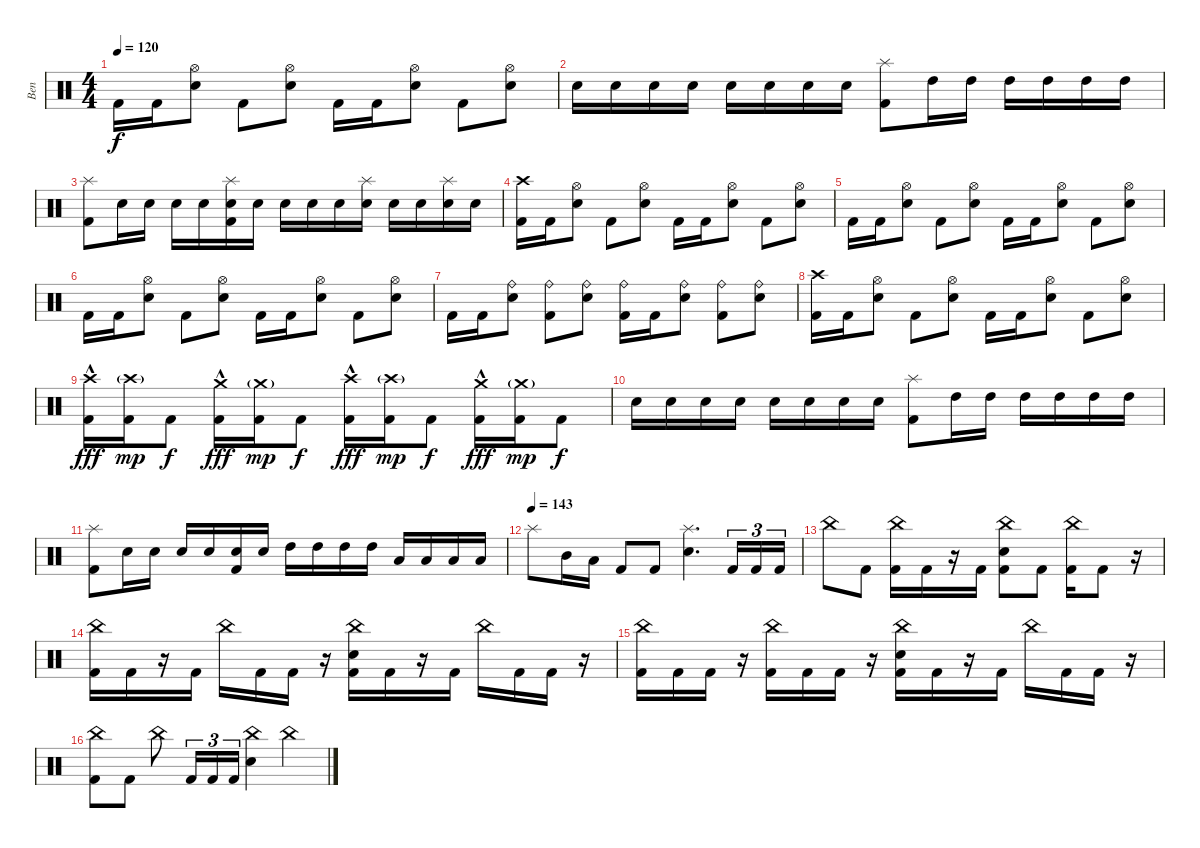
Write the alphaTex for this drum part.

\track ("Ben" "Ben") {instrument percussion}
\staff {score}
\articulation defaults
\ts (4 4)
\tempo 120
\clef neutral
\ks c "Kick (hit) 2".16{dy f} "Kick (hit) 2".16
("Hi-Hat (open)" "Electric Snare (hit)").8 "Kick (hit) 2".8 ("Hi-Hat (open)" "Electric Snare (hit)").8 "Kick (hit) 2".16 "Kick (hit) 2".16 ("Hi-Hat (open)" "Electric Snare (hit)").8 "Kick (hit) 2".8 ("Hi-Hat (open)" "Electric Snare (hit)").8 |
"Electric Snare (hit)".16 "Electric Snare (hit)".16 "Electric Snare (hit)".16 "Electric Snare (hit)".16 "Electric Snare (hit)".16 "Electric Snare (hit)".16 "Electric Snare (hit)".16 "Electric Snare (hit)".16 ("Splash (hit)" "Kick (hit) 2").8 "High Tom (hit)".16 "High Tom (hit)".16 "High Tom (hit)".16 "High Tom (hit)".16 "High Tom (hit)".16 "High Tom (hit)".16 |
("Splash (hit)" "Kick (hit) 2").8 "Electric Snare (hit)".16 "Electric Snare (hit)".16 "Electric Snare (hit)".16 "Electric Snare (hit)".16 ("Splash (hit)" "Electric Snare (hit)" "Kick (hit) 2").16 "Electric Snare (hit)".16 "Electric Snare (hit)".16 "Electric Snare (hit)".16 "Electric Snare (hit)".16 ("Splash (hit)" "Electric Snare (hit)").16 "Electric Snare (hit)".16 "Electric Snare (hit)".16 ("Splash (hit)" "Electric Snare (hit)").16 "Electric Snare (hit)".16 |
("Crash high (hit)" "Kick (hit) 2").16 "Kick (hit) 2".16 ("Hi-Hat (open)" "Electric Snare (hit)").8 "Kick (hit) 2".8 ("Hi-Hat (open)" "Electric Snare (hit)").8 "Kick (hit) 2".16 "Kick (hit) 2".16 ("Hi-Hat (open)" "Electric Snare (hit)").8 "Kick (hit) 2".8 ("Hi-Hat (open)" "Electric Snare (hit)").8 |
"Kick (hit) 2".16 "Kick (hit) 2".16 ("Hi-Hat (open)" "Electric Snare (hit)").8 "Kick (hit) 2".8 ("Hi-Hat (open)" "Electric Snare (hit)").8 "Kick (hit) 2".16 "Kick (hit) 2".16 ("Hi-Hat (open)" "Electric Snare (hit)").8 "Kick (hit) 2".8 ("Hi-Hat (open)" "Electric Snare (hit)").8 |
"Kick (hit) 2".16 "Kick (hit) 2".16 ("Hi-Hat (open)" "Electric Snare (hit)").8 "Kick (hit) 2".8 ("Hi-Hat (open)" "Electric Snare (hit)").8 "Kick (hit) 2".16 "Kick (hit) 2".16 ("Hi-Hat (open)" "Electric Snare (hit)").8 "Kick (hit) 2".8 ("Hi-Hat (open)" "Electric Snare (hit)").8 |
"Kick (hit) 2".16 "Kick (hit) 2".16 ("Ride (bell)" "Electric Snare (hit)").8 ("Ride (bell)" "Kick (hit) 2").8 ("Ride (bell)" "Electric Snare (hit)").8 ("Ride (bell)" "Kick (hit) 2").16 "Kick (hit) 2".16 ("Ride (bell)" "Electric Snare (hit)").8 ("Ride (bell)" "Kick (hit) 2").8 ("Ride (bell)" "Electric Snare (hit)").8 |
("Crash high (hit)" "Kick (hit) 2").16 "Kick (hit) 2".16 ("Hi-Hat (open)" "Electric Snare (hit)").8 "Kick (hit) 2".8 ("Hi-Hat (open)" "Electric Snare (hit)").8 "Kick (hit) 2".16 "Kick (hit) 2".16 ("Hi-Hat (open)" "Electric Snare (hit)").8 "Kick (hit) 2".8 ("Hi-Hat (open)" "Electric Snare (hit)").8 |
("Crash high (hit)"{hac} "Kick (hit) 2").16{dy fff} ("Crash high (hit)"{g} "Kick (hit) 2").16{dy mp} "Kick (hit) 2".8{dy f} ("Crash medium (hit)"{hac} "Kick (hit) 2").16{dy fff} ("Crash medium (hit)"{g} "Kick (hit) 2").16{dy mp} "Kick (hit) 2".8{dy f} ("Crash high (hit)"{hac} "Kick (hit) 2").16{dy fff} ("Crash high (hit)"{g} "Kick (hit) 2").16{dy mp} "Kick (hit) 2".8{dy f} ("Crash medium (hit)"{hac} "Kick (hit) 2").16{dy fff} ("Crash medium (hit)"{g} "Kick (hit) 2").16{dy mp} "Kick (hit) 2".8{dy f} |
"Electric Snare (hit)".16 "Electric Snare (hit)".16 "Electric Snare (hit)".16 "Electric Snare (hit)".16 "Electric Snare (hit)".16 "Electric Snare (hit)".16 "Electric Snare (hit)".16 "Electric Snare (hit)".16 ("Splash (hit)" "Kick (hit) 2").8 "High Tom (hit)".16 "High Tom (hit)".16 "High Tom (hit)".16 "High Tom (hit)".16 "High Tom (hit)".16 "High Tom (hit)".16 |
("Splash (hit)" "Kick (hit) 2").8 "Electric Snare (hit)".16 "Electric Snare (hit)".16 "Electric Snare (hit)".16 "Electric Snare (hit)".16 ("Electric Snare (hit)" "Kick (hit) 2").16 "Electric Snare (hit)".16 "High Tom (hit)".16 "High Tom (hit)".16 "High Tom (hit)".16 "High Tom (hit)".16 "Low Tom (hit)".16 "Low Tom (hit)".16 "Low Tom (hit)".16 "Low Tom (hit)".16 |
\tempo (143)
"Splash (hit)".8 "Mid Tom (hit)".16 "Low Tom (hit)".16 "Kick (hit) 2".8 "Kick (hit) 2".8 ("Splash (hit)" "Electric Snare (hit)").4{d} "Kick (hit) 2".16{tu (3 2)} "Kick (hit) 2".16{tu (3 2)} "Kick (hit) 2".16{tu (3 2)} |
"China (hit)".8 "Kick (hit) 2".8 ("China (hit)" "Kick (hit) 2").16 "Kick (hit) 2".16 r.16 "Kick (hit) 2".16 ("China (hit)" "Electric Snare (hit)" "Kick (hit) 2").8 "Kick (hit) 2".8 ("China (hit)" "Kick (hit) 2").16 "Kick (hit) 2".8 r.16 |
("China (hit)" "Kick (hit) 2").16 "Kick (hit) 2".16 r.16 "Kick (hit) 2".16 "China (hit)".16 "Kick (hit) 2".16 "Kick (hit) 2".16 r.16 ("China (hit)" "Electric Snare (hit)" "Kick (hit) 2").16 "Kick (hit) 2".16 r.16 "Kick (hit) 2".16 "China (hit)".16 "Kick (hit) 2".16 "Kick (hit) 2".16 r.16 |
("China (hit)" "Kick (hit) 2").16 "Kick (hit) 2".16 "Kick (hit) 2".16 r.16 ("China (hit)" "Kick (hit) 2").16 "Kick (hit) 2".16 "Kick (hit) 2".16 r.16 ("China (hit)" "Electric Snare (hit)" "Kick (hit) 2").16 "Kick (hit) 2".16 r.16 "Kick (hit) 2".16 "China (hit)".16 "Kick (hit) 2".16 "Kick (hit) 2".16 r.16 |
("China (hit)" "Kick (hit) 2").8 "Kick (hit) 2".8 "China (hit)".8 "Kick (hit) 2".16{tu (3 2)} "Kick (hit) 2".16{tu (3 2)} "Kick (hit) 2".16{tu (3 2)} ("China (hit)" "Electric Snare (hit)").4 "China (hit)".4
